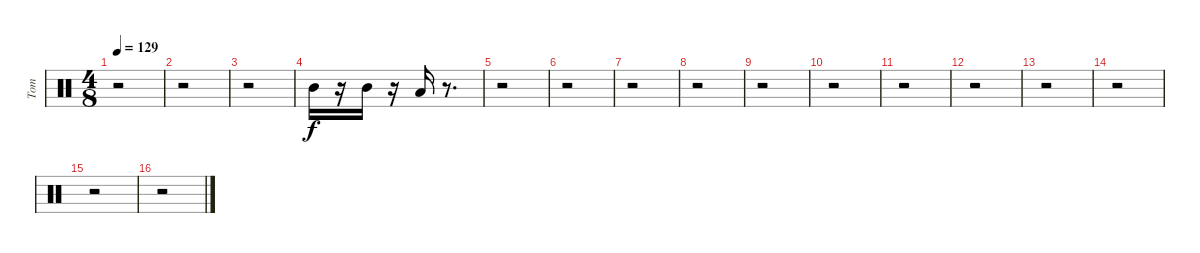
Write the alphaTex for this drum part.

\track ("Tom" "Tom") {instrument percussion}
\staff {score}
\articulation defaults
\ts (4 8)
\tempo 129
\clef neutral
\ks c
r.2{dy pp} |
r.2 |
r.2 |
"Mid Tom (hit)".16{dy f} r.16 "Mid Tom (hit)".16 r.16 "Low Tom (hit)".16 r.8{d} |
r.2 |
r.2 |
r.2 |
r.2 |
r.2 |
r.2 |
r.2 |
r.2 |
r.2 |
r.2 |
r.2 |
r.2
